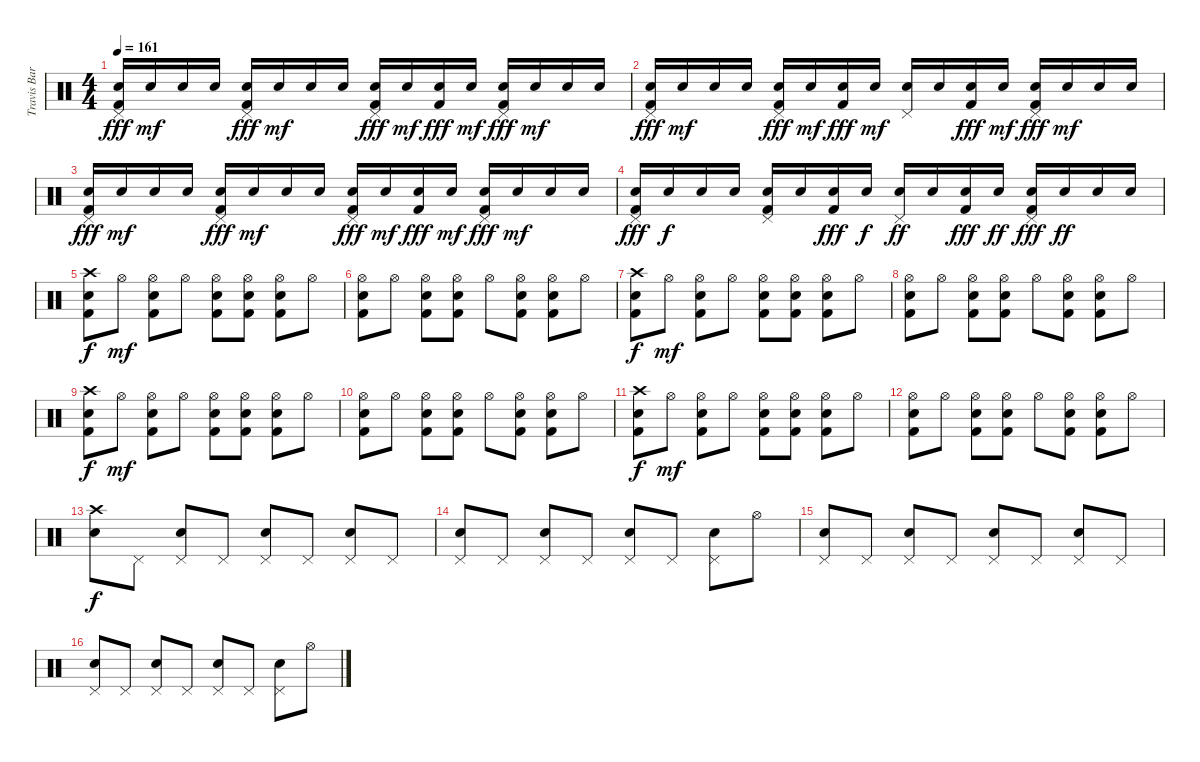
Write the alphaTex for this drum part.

\track ("Travis Barker - Drums" "Travis Bar") {instrument percussion}
\staff {score}
\articulation defaults
\ts (4 4)
\tempo 161
\clef neutral
\ks c
("Pedal Hi-Hat (hit)" "Electric Snare (hit)" "Kick (hit) 2").16{dy fff} "Electric Snare (hit)".16{dy mf} "Electric Snare (hit)".16 "Electric Snare (hit)".16 ("Pedal Hi-Hat (hit)" "Electric Snare (hit)" "Kick (hit) 2").16{dy fff} "Electric Snare (hit)".16{dy mf} "Electric Snare (hit)".16 "Electric Snare (hit)".16 ("Pedal Hi-Hat (hit)" "Electric Snare (hit)" "Kick (hit) 2").16{dy fff} "Electric Snare (hit)".16{dy mf} ("Electric Snare (hit)" "Kick (hit) 2").16{dy fff} "Electric Snare (hit)".16{dy mf} ("Pedal Hi-Hat (hit)" "Electric Snare (hit)" "Kick (hit) 2").16{dy fff} "Electric Snare (hit)".16{dy mf} "Electric Snare (hit)".16 "Electric Snare (hit)".16 |
("Pedal Hi-Hat (hit)" "Electric Snare (hit)" "Kick (hit) 2").16{dy fff} "Electric Snare (hit)".16{dy mf} "Electric Snare (hit)".16 "Electric Snare (hit)".16 ("Pedal Hi-Hat (hit)" "Electric Snare (hit)" "Kick (hit) 2").16{dy fff} "Electric Snare (hit)".16{dy mf} ("Electric Snare (hit)" "Kick (hit) 2").16{dy fff} "Electric Snare (hit)".16{dy mf} ("Pedal Hi-Hat (hit)" "Electric Snare (hit)").16 "Electric Snare (hit)".16 ("Electric Snare (hit)" "Kick (hit) 2").16{dy fff} "Electric Snare (hit)".16{dy mf} ("Pedal Hi-Hat (hit)" "Electric Snare (hit)" "Kick (hit) 2").16{dy fff} "Electric Snare (hit)".16{dy mf} "Electric Snare (hit)".16 "Electric Snare (hit)".16 |
("Pedal Hi-Hat (hit)" "Electric Snare (hit)" "Kick (hit) 2").16{dy fff} "Electric Snare (hit)".16{dy mf} "Electric Snare (hit)".16 "Electric Snare (hit)".16 ("Pedal Hi-Hat (hit)" "Electric Snare (hit)" "Kick (hit) 2").16{dy fff} "Electric Snare (hit)".16{dy mf} "Electric Snare (hit)".16 "Electric Snare (hit)".16 ("Pedal Hi-Hat (hit)" "Electric Snare (hit)" "Kick (hit) 2").16{dy fff} "Electric Snare (hit)".16{dy mf} ("Electric Snare (hit)" "Kick (hit) 2").16{dy fff} "Electric Snare (hit)".16{dy mf} ("Pedal Hi-Hat (hit)" "Electric Snare (hit)" "Kick (hit) 2").16{dy fff} "Electric Snare (hit)".16{dy mf} "Electric Snare (hit)".16 "Electric Snare (hit)".16 |
("Pedal Hi-Hat (hit)" "Electric Snare (hit)" "Kick (hit) 2").16{dy fff} "Electric Snare (hit)".16{dy f} "Electric Snare (hit)".16 "Electric Snare (hit)".16 ("Pedal Hi-Hat (hit)" "Electric Snare (hit)" "Kick (hit) 2").16 "Electric Snare (hit)".16 ("Electric Snare (hit)" "Kick (hit) 2").16{dy fff} "Electric Snare (hit)".16{dy f} ("Pedal Hi-Hat (hit)" "Electric Snare (hit)").16{dy ff} "Electric Snare (hit)".16 ("Electric Snare (hit)" "Kick (hit) 2").16{dy fff} "Electric Snare (hit)".16{dy ff} ("Pedal Hi-Hat (hit)" "Electric Snare (hit)" "Kick (hit) 2").16{dy fff} "Electric Snare (hit)".16{dy ff} "Electric Snare (hit)".16 "Electric Snare (hit)".16 |
("Crash high (hit)" "Electric Snare (hit)" "Kick (hit) 2").8{dy f} "Hi-Hat (open)".8{dy mf} ("Hi-Hat (open)" "Electric Snare (hit)" "Kick (hit) 2").8 "Hi-Hat (open)".8 ("Hi-Hat (open)" "Electric Snare (hit)" "Kick (hit) 2").8 ("Hi-Hat (open)" "Electric Snare (hit)" "Kick (hit) 2").8 ("Hi-Hat (open)" "Electric Snare (hit)" "Kick (hit) 2").8 "Hi-Hat (open)".8 |
("Hi-Hat (open)" "Electric Snare (hit)" "Kick (hit) 2").8 "Hi-Hat (open)".8 ("Hi-Hat (open)" "Electric Snare (hit)" "Kick (hit) 2").8 ("Hi-Hat (open)" "Electric Snare (hit)" "Kick (hit) 2").8 "Hi-Hat (open)".8 ("Hi-Hat (open)" "Electric Snare (hit)" "Kick (hit) 2").8 ("Hi-Hat (open)" "Electric Snare (hit)" "Kick (hit) 2").8 "Hi-Hat (open)".8 |
("Crash high (hit)" "Electric Snare (hit)" "Kick (hit) 2").8{dy f} "Hi-Hat (open)".8{dy mf} ("Hi-Hat (open)" "Electric Snare (hit)" "Kick (hit) 2").8 "Hi-Hat (open)".8 ("Hi-Hat (open)" "Electric Snare (hit)" "Kick (hit) 2").8 ("Hi-Hat (open)" "Electric Snare (hit)" "Kick (hit) 2").8 ("Hi-Hat (open)" "Electric Snare (hit)" "Kick (hit) 2").8 "Hi-Hat (open)".8 |
("Hi-Hat (open)" "Electric Snare (hit)" "Kick (hit) 2").8 "Hi-Hat (open)".8 ("Hi-Hat (open)" "Electric Snare (hit)" "Kick (hit) 2").8 ("Hi-Hat (open)" "Electric Snare (hit)" "Kick (hit) 2").8 "Hi-Hat (open)".8 ("Hi-Hat (open)" "Electric Snare (hit)" "Kick (hit) 2").8 ("Hi-Hat (open)" "Electric Snare (hit)" "Kick (hit) 2").8 "Hi-Hat (open)".8 |
("Crash high (hit)" "Electric Snare (hit)" "Kick (hit) 2").8{dy f} "Hi-Hat (open)".8{dy mf} ("Hi-Hat (open)" "Electric Snare (hit)" "Kick (hit) 2").8 "Hi-Hat (open)".8 ("Hi-Hat (open)" "Electric Snare (hit)" "Kick (hit) 2").8 ("Hi-Hat (open)" "Electric Snare (hit)" "Kick (hit) 2").8 ("Hi-Hat (open)" "Electric Snare (hit)" "Kick (hit) 2").8 "Hi-Hat (open)".8 |
("Hi-Hat (open)" "Electric Snare (hit)" "Kick (hit) 2").8 "Hi-Hat (open)".8 ("Hi-Hat (open)" "Electric Snare (hit)" "Kick (hit) 2").8 ("Hi-Hat (open)" "Electric Snare (hit)" "Kick (hit) 2").8 "Hi-Hat (open)".8 ("Hi-Hat (open)" "Electric Snare (hit)" "Kick (hit) 2").8 ("Hi-Hat (open)" "Electric Snare (hit)" "Kick (hit) 2").8 "Hi-Hat (open)".8 |
("Crash high (hit)" "Electric Snare (hit)" "Kick (hit) 2").8{dy f} "Hi-Hat (open)".8{dy mf} ("Hi-Hat (open)" "Electric Snare (hit)" "Kick (hit) 2").8 "Hi-Hat (open)".8 ("Hi-Hat (open)" "Electric Snare (hit)" "Kick (hit) 2").8 ("Hi-Hat (open)" "Electric Snare (hit)" "Kick (hit) 2").8 ("Hi-Hat (open)" "Electric Snare (hit)" "Kick (hit) 2").8 "Hi-Hat (open)".8 |
("Hi-Hat (open)" "Electric Snare (hit)" "Kick (hit) 2").8 "Hi-Hat (open)".8 ("Hi-Hat (open)" "Electric Snare (hit)" "Kick (hit) 2").8 ("Hi-Hat (open)" "Electric Snare (hit)" "Kick (hit) 2").8 "Hi-Hat (open)".8 ("Hi-Hat (open)" "Electric Snare (hit)" "Kick (hit) 2").8 ("Hi-Hat (open)" "Electric Snare (hit)" "Kick (hit) 2").8 "Hi-Hat (open)".8 |
("Crash high (hit)" "Electric Snare (hit)").8{dy f} "Pedal Hi-Hat (hit)".8 ("Pedal Hi-Hat (hit)" "Electric Snare (hit)").8 "Pedal Hi-Hat (hit)".8 ("Pedal Hi-Hat (hit)" "Electric Snare (hit)").8 "Pedal Hi-Hat (hit)".8 ("Pedal Hi-Hat (hit)" "Electric Snare (hit)").8 "Pedal Hi-Hat (hit)".8 |
("Pedal Hi-Hat (hit)" "Electric Snare (hit)").8 "Pedal Hi-Hat (hit)".8 ("Pedal Hi-Hat (hit)" "Electric Snare (hit)").8 "Pedal Hi-Hat (hit)".8 ("Pedal Hi-Hat (hit)" "Electric Snare (hit)").8 "Pedal Hi-Hat (hit)".8 ("Pedal Hi-Hat (hit)" "Electric Snare (hit)").8 "Hi-Hat (open)".8 |
("Pedal Hi-Hat (hit)" "Electric Snare (hit)").8 "Pedal Hi-Hat (hit)".8 ("Pedal Hi-Hat (hit)" "Electric Snare (hit)").8 "Pedal Hi-Hat (hit)".8 ("Pedal Hi-Hat (hit)" "Electric Snare (hit)").8 "Pedal Hi-Hat (hit)".8 ("Pedal Hi-Hat (hit)" "Electric Snare (hit)").8 "Pedal Hi-Hat (hit)".8 |
("Pedal Hi-Hat (hit)" "Electric Snare (hit)").8 "Pedal Hi-Hat (hit)".8 ("Pedal Hi-Hat (hit)" "Electric Snare (hit)").8 "Pedal Hi-Hat (hit)".8 ("Pedal Hi-Hat (hit)" "Electric Snare (hit)").8 "Pedal Hi-Hat (hit)".8 ("Pedal Hi-Hat (hit)" "Electric Snare (hit)").8 "Hi-Hat (open)".8
